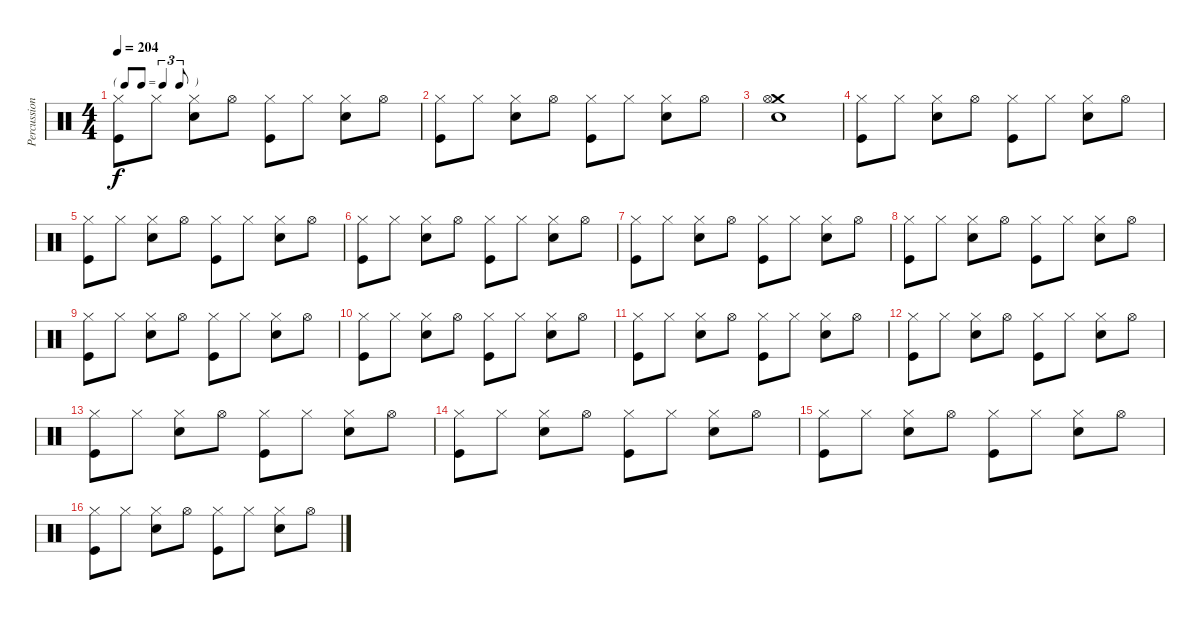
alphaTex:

\track ("Percussions" "Percussion") {instrument percussion}
\staff {score}
\articulation defaults
\ts (4 4)
\tf triplet8th
\tempo 204
\clef neutral
\ks c
("Hi-Hat (closed)" "Kick (hit)").8{dy f} "Hi-Hat (closed)".8 ("Hi-Hat (closed)" "Snare (hit) 2").8 "Hi-Hat (open)".8 ("Hi-Hat (closed)" "Kick (hit)").8 "Hi-Hat (closed)".8 ("Hi-Hat (closed)" "Snare (hit) 2").8 "Hi-Hat (open)".8 |
("Hi-Hat (closed)" "Kick (hit)").8 "Hi-Hat (closed)".8 ("Hi-Hat (closed)" "Snare (hit) 2").8 "Hi-Hat (open)".8 ("Hi-Hat (closed)" "Kick (hit)").8 "Hi-Hat (closed)".8 ("Hi-Hat (closed)" "Snare (hit) 2").8 "Hi-Hat (open)".8 |
("Crash medium (hit)" "Hi-Hat (open)" "Snare (hit) 2").1 |
("Hi-Hat (closed)" "Kick (hit)").8 "Hi-Hat (closed)".8 ("Hi-Hat (closed)" "Snare (hit) 2").8 "Hi-Hat (open)".8 ("Hi-Hat (closed)" "Kick (hit)").8 "Hi-Hat (closed)".8 ("Hi-Hat (closed)" "Snare (hit) 2").8 "Hi-Hat (open)".8 |
("Hi-Hat (closed)" "Kick (hit)").8 "Hi-Hat (closed)".8 ("Hi-Hat (closed)" "Snare (hit) 2").8 "Hi-Hat (open)".8 ("Hi-Hat (closed)" "Kick (hit)").8 "Hi-Hat (closed)".8 ("Hi-Hat (closed)" "Snare (hit) 2").8 "Hi-Hat (open)".8 |
("Hi-Hat (closed)" "Kick (hit)").8 "Hi-Hat (closed)".8 ("Hi-Hat (closed)" "Snare (hit) 2").8 "Hi-Hat (open)".8 ("Hi-Hat (closed)" "Kick (hit)").8 "Hi-Hat (closed)".8 ("Hi-Hat (closed)" "Snare (hit) 2").8 "Hi-Hat (open)".8 |
("Hi-Hat (closed)" "Kick (hit)").8 "Hi-Hat (closed)".8 ("Hi-Hat (closed)" "Snare (hit) 2").8 "Hi-Hat (open)".8 ("Hi-Hat (closed)" "Kick (hit)").8 "Hi-Hat (closed)".8 ("Hi-Hat (closed)" "Snare (hit) 2").8 "Hi-Hat (open)".8 |
("Hi-Hat (closed)" "Kick (hit)").8 "Hi-Hat (closed)".8 ("Hi-Hat (closed)" "Snare (hit) 2").8 "Hi-Hat (open)".8 ("Hi-Hat (closed)" "Kick (hit)").8 "Hi-Hat (closed)".8 ("Hi-Hat (closed)" "Snare (hit) 2").8 "Hi-Hat (open)".8 |
("Hi-Hat (closed)" "Kick (hit)").8 "Hi-Hat (closed)".8 ("Hi-Hat (closed)" "Snare (hit) 2").8 "Hi-Hat (open)".8 ("Hi-Hat (closed)" "Kick (hit)").8 "Hi-Hat (closed)".8 ("Hi-Hat (closed)" "Snare (hit) 2").8 "Hi-Hat (open)".8 |
("Hi-Hat (closed)" "Kick (hit)").8 "Hi-Hat (closed)".8 ("Hi-Hat (closed)" "Snare (hit) 2").8 "Hi-Hat (open)".8 ("Hi-Hat (closed)" "Kick (hit)").8 "Hi-Hat (closed)".8 ("Hi-Hat (closed)" "Snare (hit) 2").8 "Hi-Hat (open)".8 |
("Hi-Hat (closed)" "Kick (hit)").8 "Hi-Hat (closed)".8 ("Hi-Hat (closed)" "Snare (hit) 2").8 "Hi-Hat (open)".8 ("Hi-Hat (closed)" "Kick (hit)").8 "Hi-Hat (closed)".8 ("Hi-Hat (closed)" "Snare (hit) 2").8 "Hi-Hat (open)".8 |
("Hi-Hat (closed)" "Kick (hit)").8 "Hi-Hat (closed)".8 ("Hi-Hat (closed)" "Snare (hit) 2").8 "Hi-Hat (open)".8 ("Hi-Hat (closed)" "Kick (hit)").8 "Hi-Hat (closed)".8 ("Hi-Hat (closed)" "Snare (hit) 2").8 "Hi-Hat (open)".8 |
("Hi-Hat (closed)" "Kick (hit)").8 "Hi-Hat (closed)".8 ("Hi-Hat (closed)" "Snare (hit) 2").8 "Hi-Hat (open)".8 ("Hi-Hat (closed)" "Kick (hit)").8 "Hi-Hat (closed)".8 ("Hi-Hat (closed)" "Snare (hit) 2").8 "Hi-Hat (open)".8 |
("Hi-Hat (closed)" "Kick (hit)").8 "Hi-Hat (closed)".8 ("Hi-Hat (closed)" "Snare (hit) 2").8 "Hi-Hat (open)".8 ("Hi-Hat (closed)" "Kick (hit)").8 "Hi-Hat (closed)".8 ("Hi-Hat (closed)" "Snare (hit) 2").8 "Hi-Hat (open)".8 |
("Hi-Hat (closed)" "Kick (hit)").8 "Hi-Hat (closed)".8 ("Hi-Hat (closed)" "Snare (hit) 2").8 "Hi-Hat (open)".8 ("Hi-Hat (closed)" "Kick (hit)").8 "Hi-Hat (closed)".8 ("Hi-Hat (closed)" "Snare (hit) 2").8 "Hi-Hat (open)".8 |
("Hi-Hat (closed)" "Kick (hit)").8 "Hi-Hat (closed)".8 ("Hi-Hat (closed)" "Snare (hit) 2").8 "Hi-Hat (open)".8 ("Hi-Hat (closed)" "Kick (hit)").8 "Hi-Hat (closed)".8 ("Hi-Hat (closed)" "Snare (hit) 2").8 "Hi-Hat (open)".8
